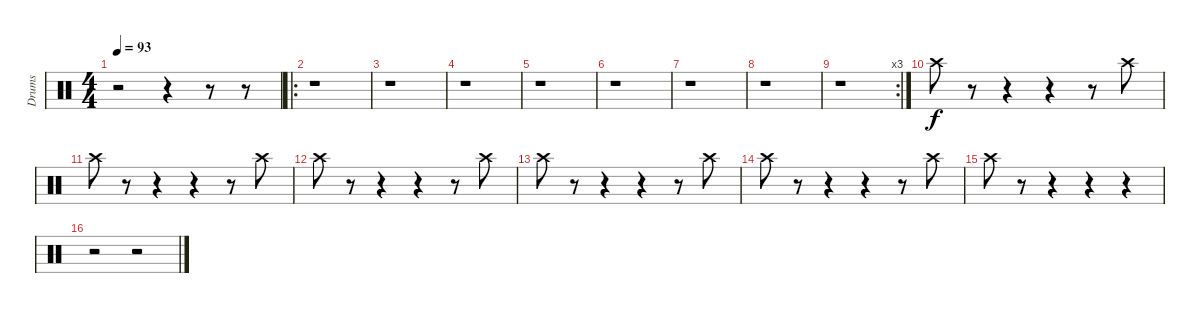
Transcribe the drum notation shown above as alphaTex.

\track ("Drums" "Drums") {instrument percussion}
\staff {score}
\articulation defaults
\ts (4 4)
\tempo 93
\clef neutral
\ks c
r.2{dy f} r.4 r.8 r.8 |
\ro
r.1 |
r.1 |
r.1 |
r.1 |
r.1 |
r.1 |
r.1 |
\rc 3
r.1 |
"Crash high (hit)".8 r.8 r.4 r.4 r.8 "Crash high (hit)".8 |
"Crash high (hit)".8 r.8 r.4 r.4 r.8 "Crash high (hit)".8 |
"Crash high (hit)".8 r.8 r.4 r.4 r.8 "Crash high (hit)".8 |
"Crash high (hit)".8 r.8 r.4 r.4 r.8 "Crash high (hit)".8 |
"Crash high (hit)".8 r.8 r.4 r.4 r.8 "Crash high (hit)".8 |
"Crash high (hit)".8 r.8 r.4 r.4 r.4 |
r.2 r.2
